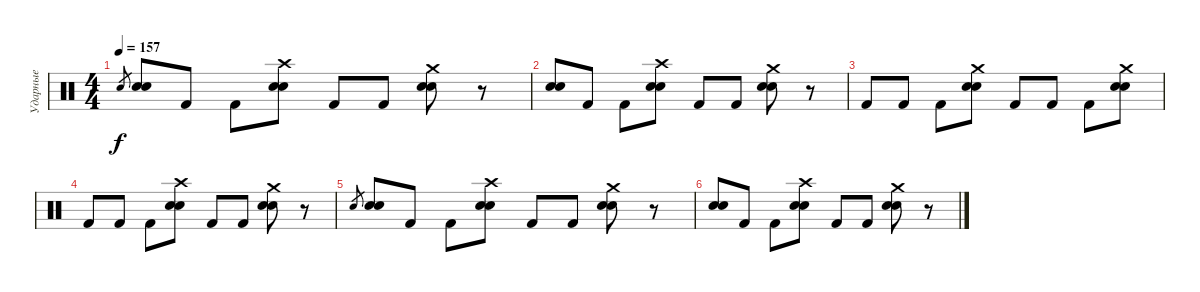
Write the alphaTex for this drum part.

\track ("Ударные" "Ударные") {instrument percussion}
\staff {score}
\articulation defaults
\ts (4 4)
\tempo 157
\clef neutral
\ks c "Electric Snare (hit)".8{gr dy f}
("Snare (hit) 2" "Electric Snare (hit)").8 "Kick (hit) 2".8 "Kick (hit) 2".8 ("Crash high (hit)" "Snare (hit) 2" "Electric Snare (hit)").8 "Kick (hit) 2".8 "Kick (hit) 2".8 ("Crash medium (hit)" "Snare (hit) 2" "Electric Snare (hit)").8 r.8 |
("Snare (hit) 2" "Electric Snare (hit)").8 "Kick (hit) 2".8 "Kick (hit) 2".8 ("Crash high (hit)" "Snare (hit) 2" "Electric Snare (hit)").8 "Kick (hit) 2".8 "Kick (hit) 2".8 ("Crash medium (hit)" "Snare (hit) 2" "Electric Snare (hit)").8 r.8 |
"Kick (hit) 2".8 "Kick (hit) 2".8 "Kick (hit) 2".8 ("Crash medium (hit)" "Snare (hit) 2" "Electric Snare (hit)").8 "Kick (hit) 2".8 "Kick (hit) 2".8 "Kick (hit) 2".8 ("Crash medium (hit)" "Snare (hit) 2" "Electric Snare (hit)").8 |
"Kick (hit) 2".8 "Kick (hit) 2".8 "Kick (hit) 2".8 ("Crash high (hit)" "Snare (hit) 2" "Electric Snare (hit)").8 "Kick (hit) 2".8 "Kick (hit) 2".8 ("Crash medium (hit)" "Snare (hit) 2" "Electric Snare (hit)").8 r.8 |
"Electric Snare (hit)".8{gr} ("Snare (hit) 2" "Electric Snare (hit)").8 "Kick (hit) 2".8 "Kick (hit) 2".8 ("Crash high (hit)" "Snare (hit) 2" "Electric Snare (hit)").8 "Kick (hit) 2".8 "Kick (hit) 2".8 ("Crash medium (hit)" "Snare (hit) 2" "Electric Snare (hit)").8 r.8 |
("Snare (hit) 2" "Electric Snare (hit)").8 "Kick (hit) 2".8 "Kick (hit) 2".8 ("Crash high (hit)" "Snare (hit) 2" "Electric Snare (hit)").8 "Kick (hit) 2".8 "Kick (hit) 2".8 ("Crash medium (hit)" "Snare (hit) 2" "Electric Snare (hit)").8 r.8
